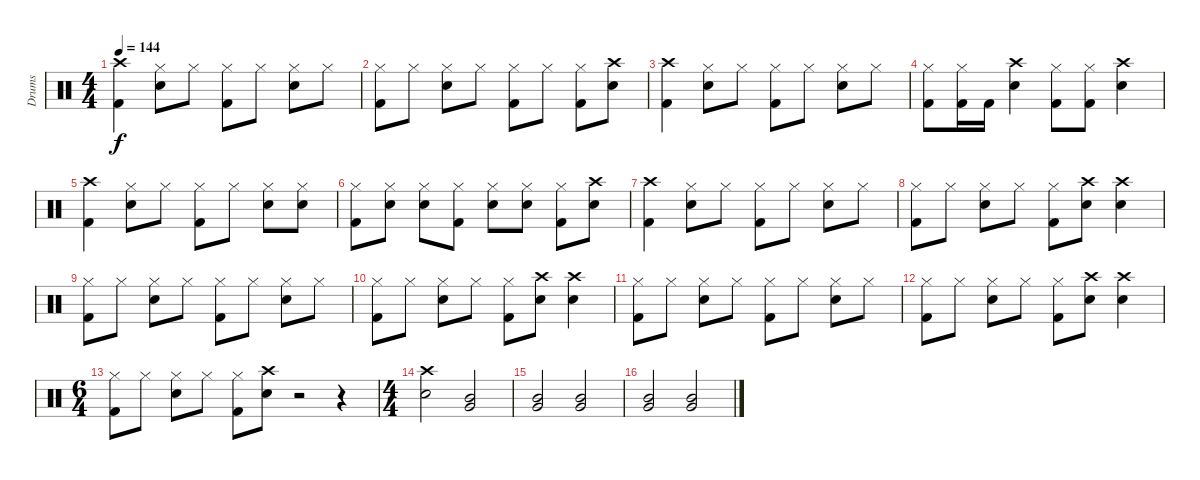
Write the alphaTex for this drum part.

\track ("Drums" "Drums") {instrument percussion}
\staff {score}
\articulation defaults
\ts (4 4)
\tempo 144
\clef neutral
\ks c
("Crash high (hit)" "Kick (hit) 2").4{dy f} ("Hi-Hat (closed)" "Snare (hit) 2").8 "Hi-Hat (closed)".8 ("Hi-Hat (closed)" "Kick (hit) 2").8 "Hi-Hat (closed)".8 ("Hi-Hat (closed)" "Snare (hit) 2").8 "Hi-Hat (closed)".8 |
("Hi-Hat (closed)" "Kick (hit) 2").8 "Hi-Hat (closed)".8 ("Hi-Hat (closed)" "Snare (hit) 2").8 "Hi-Hat (closed)".8 ("Hi-Hat (closed)" "Kick (hit) 2").8 "Hi-Hat (closed)".8 ("Hi-Hat (closed)" "Kick (hit) 2").8 ("Crash high (hit)" "Snare (hit) 2").8 |
("Crash high (hit)" "Kick (hit) 2").4 ("Hi-Hat (closed)" "Snare (hit) 2").8 "Hi-Hat (closed)".8 ("Hi-Hat (closed)" "Kick (hit) 2").8 "Hi-Hat (closed)".8 ("Hi-Hat (closed)" "Snare (hit) 2").8 "Hi-Hat (closed)".8 |
("Hi-Hat (closed)" "Kick (hit) 2").8 ("Hi-Hat (closed)" "Kick (hit) 2").16 "Kick (hit) 2".16 ("Crash high (hit)" "Snare (hit) 2").4 ("Hi-Hat (closed)" "Kick (hit) 2").8 ("Hi-Hat (closed)" "Kick (hit) 2").8 ("Crash high (hit)" "Snare (hit) 2").4 |
("Crash high (hit)" "Kick (hit) 2").4 ("Hi-Hat (closed)" "Snare (hit) 2").8 "Hi-Hat (closed)".8 ("Hi-Hat (closed)" "Kick (hit) 2").8 "Hi-Hat (closed)".8 ("Hi-Hat (closed)" "Snare (hit) 2").8 ("Hi-Hat (closed)" "Snare (hit) 2").8 |
("Hi-Hat (closed)" "Kick (hit) 2").8 ("Hi-Hat (closed)" "Snare (hit) 2").8 ("Hi-Hat (closed)" "Snare (hit) 2").8 ("Hi-Hat (closed)" "Kick (hit) 2").8 ("Hi-Hat (closed)" "Snare (hit) 2").8 ("Hi-Hat (closed)" "Snare (hit) 2").8 ("Hi-Hat (closed)" "Kick (hit) 2").8 ("Crash high (hit)" "Snare (hit) 2").8 |
("Crash high (hit)" "Kick (hit) 2").4 ("Hi-Hat (closed)" "Snare (hit) 2").8 "Hi-Hat (closed)".8 ("Hi-Hat (closed)" "Kick (hit) 2").8 "Hi-Hat (closed)".8 ("Hi-Hat (closed)" "Snare (hit) 2").8 "Hi-Hat (closed)".8 |
("Hi-Hat (closed)" "Kick (hit) 2").8 "Hi-Hat (closed)".8 ("Hi-Hat (closed)" "Snare (hit) 2").8 "Hi-Hat (closed)".8 ("Hi-Hat (closed)" "Kick (hit) 2").8 ("Crash high (hit)" "Snare (hit) 2").8 ("Crash high (hit)" "Snare (hit) 2").4 |
("Hi-Hat (closed)" "Kick (hit) 2").8 "Hi-Hat (closed)".8 ("Hi-Hat (closed)" "Snare (hit) 2").8 "Hi-Hat (closed)".8 ("Hi-Hat (closed)" "Kick (hit) 2").8 "Hi-Hat (closed)".8 ("Hi-Hat (closed)" "Snare (hit) 2").8 "Hi-Hat (closed)".8 |
("Hi-Hat (closed)" "Kick (hit) 2").8 "Hi-Hat (closed)".8 ("Hi-Hat (closed)" "Snare (hit) 2").8 "Hi-Hat (closed)".8 ("Hi-Hat (closed)" "Kick (hit) 2").8 ("Crash high (hit)" "Snare (hit) 2").8 ("Crash high (hit)" "Snare (hit) 2").4 |
("Hi-Hat (closed)" "Kick (hit) 2").8 "Hi-Hat (closed)".8 ("Hi-Hat (closed)" "Snare (hit) 2").8 "Hi-Hat (closed)".8 ("Hi-Hat (closed)" "Kick (hit) 2").8 "Hi-Hat (closed)".8 ("Hi-Hat (closed)" "Snare (hit) 2").8 "Hi-Hat (closed)".8 |
("Hi-Hat (closed)" "Kick (hit) 2").8 "Hi-Hat (closed)".8 ("Hi-Hat (closed)" "Snare (hit) 2").8 "Hi-Hat (closed)".8 ("Hi-Hat (closed)" "Kick (hit) 2").8 ("Crash high (hit)" "Snare (hit) 2").8 ("Crash high (hit)" "Snare (hit) 2").4 |
\ts (6 4)
("Hi-Hat (closed)" "Kick (hit) 2").8 "Hi-Hat (closed)".8 ("Hi-Hat (closed)" "Snare (hit) 2").8 "Hi-Hat (closed)".8 ("Hi-Hat (closed)" "Kick (hit) 2").8 ("Crash high (hit)" "Snare (hit) 2").8 r.2 r.4 |
\ts (4 4)
("Crash high (hit)" "Snare (hit) 2").2 ("Very Low Tom (hit)" "Mid Tom (hit)").2 |
("Very Low Tom (hit)" "Mid Tom (hit)").2 ("Very Low Tom (hit)" "Mid Tom (hit)").2 |
("Very Low Tom (hit)" "Mid Tom (hit)").2 ("Very Low Tom (hit)" "Mid Tom (hit)").2
